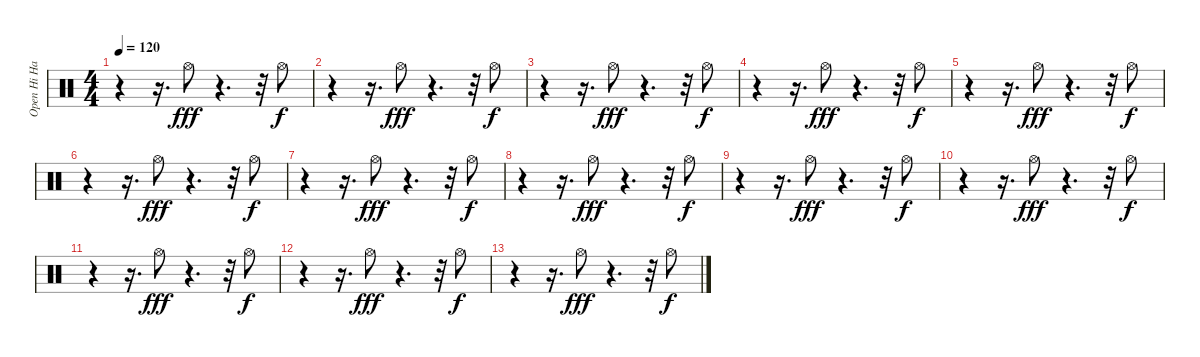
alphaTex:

\track ("Open Hi Hat         " "Open Hi Ha") {instrument percussion}
\staff {score}
\articulation defaults
\ts (4 4)
\tempo 120
\clef neutral
\ks c
r.4{dy f} r.16{d} "Hi-Hat (open)".8{dy fff} r.4{d} r.32 "Hi-Hat (open)".8{dy f} |
r.4 r.16{d} "Hi-Hat (open)".8{dy fff} r.4{d} r.32 "Hi-Hat (open)".8{dy f} |
r.4 r.16{d} "Hi-Hat (open)".8{dy fff} r.4{d} r.32 "Hi-Hat (open)".8{dy f} |
r.4 r.16{d} "Hi-Hat (open)".8{dy fff volume 12} r.4{d} r.32 "Hi-Hat (open)".8{dy f volume 11} |
r.4 r.16{d} "Hi-Hat (open)".8{dy fff volume 11} r.4{d} r.32 "Hi-Hat (open)".8{dy f volume 10} |
r.4 r.16{d} "Hi-Hat (open)".8{dy fff volume 9} r.4{d} r.32 "Hi-Hat (open)".8{dy f volume 9} |
r.4 r.16{d} "Hi-Hat (open)".8{dy fff volume 8} r.4{d} r.32 "Hi-Hat (open)".8{dy f volume 8} |
r.4 r.16{d} "Hi-Hat (open)".8{dy fff volume 7} r.4{d} r.32 "Hi-Hat (open)".8{dy f volume 6} |
r.4 r.16{d} "Hi-Hat (open)".8{dy fff volume 6} r.4{d} r.32 "Hi-Hat (open)".8{dy f volume 5} |
r.4 r.16{d} "Hi-Hat (open)".8{dy fff volume 4} r.4{d} r.32 "Hi-Hat (open)".8{dy f volume 4} |
r.4 r.16{d} "Hi-Hat (open)".8{dy fff volume 3} r.4{d} r.32 "Hi-Hat (open)".8{dy f volume 3} |
r.4 r.16{d} "Hi-Hat (open)".8{dy fff volume 2} r.4{d} r.32 "Hi-Hat (open)".8{dy f volume 1} |
r.4 r.16{d} "Hi-Hat (open)".8{dy fff volume 1} r.4{d} r.32 "Hi-Hat (open)".8{dy f volume 0}
